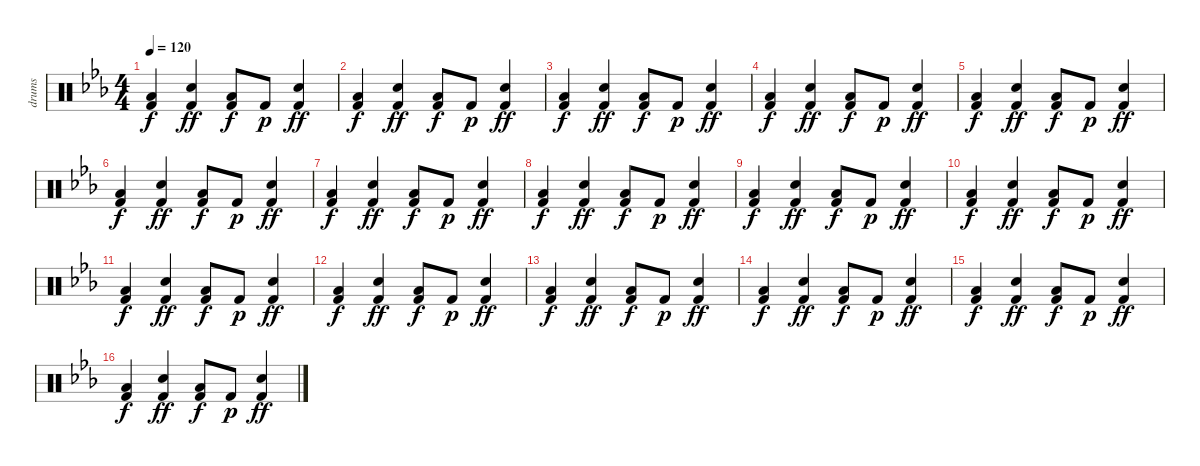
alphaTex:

\track ("drums" "drums") {instrument percussion}
\staff {score}
\articulation defaults
\ts (4 4)
\tempo 120
\clef neutral
\ks cminor
("Kick (hit) 2" "Low Floor Tom (hit)").4{dy f} ("Kick (hit) 2" "Hand Clap (hit)").4{dy ff} ("Kick (hit) 2" "Low Floor Tom (hit)").8{dy f} "Kick (hit) 2".8{dy p} ("Kick (hit) 2" "Hand Clap (hit)").4{dy ff} |
("Kick (hit) 2" "Low Floor Tom (hit)").4{dy f} ("Kick (hit) 2" "Hand Clap (hit)").4{dy ff} ("Kick (hit) 2" "Low Floor Tom (hit)").8{dy f} "Kick (hit) 2".8{dy p} ("Kick (hit) 2" "Hand Clap (hit)").4{dy ff} |
("Kick (hit) 2" "Low Floor Tom (hit)").4{dy f} ("Kick (hit) 2" "Hand Clap (hit)").4{dy ff} ("Kick (hit) 2" "Low Floor Tom (hit)").8{dy f} "Kick (hit) 2".8{dy p} ("Kick (hit) 2" "Hand Clap (hit)").4{dy ff} |
("Kick (hit) 2" "Low Floor Tom (hit)").4{dy f} ("Kick (hit) 2" "Hand Clap (hit)").4{dy ff} ("Kick (hit) 2" "Low Floor Tom (hit)").8{dy f} "Kick (hit) 2".8{dy p} ("Kick (hit) 2" "Hand Clap (hit)").4{dy ff} |
("Kick (hit) 2" "Low Floor Tom (hit)").4{dy f} ("Kick (hit) 2" "Hand Clap (hit)").4{dy ff} ("Kick (hit) 2" "Low Floor Tom (hit)").8{dy f} "Kick (hit) 2".8{dy p} ("Kick (hit) 2" "Hand Clap (hit)").4{dy ff} |
("Kick (hit) 2" "Low Floor Tom (hit)").4{dy f} ("Kick (hit) 2" "Hand Clap (hit)").4{dy ff} ("Kick (hit) 2" "Low Floor Tom (hit)").8{dy f} "Kick (hit) 2".8{dy p} ("Kick (hit) 2" "Hand Clap (hit)").4{dy ff} |
("Kick (hit) 2" "Low Floor Tom (hit)").4{dy f} ("Kick (hit) 2" "Hand Clap (hit)").4{dy ff} ("Kick (hit) 2" "Low Floor Tom (hit)").8{dy f} "Kick (hit) 2".8{dy p} ("Kick (hit) 2" "Hand Clap (hit)").4{dy ff} |
("Kick (hit) 2" "Low Floor Tom (hit)").4{dy f} ("Kick (hit) 2" "Hand Clap (hit)").4{dy ff} ("Kick (hit) 2" "Low Floor Tom (hit)").8{dy f} "Kick (hit) 2".8{dy p} ("Kick (hit) 2" "Hand Clap (hit)").4{dy ff} |
("Kick (hit) 2" "Low Floor Tom (hit)").4{dy f} ("Kick (hit) 2" "Hand Clap (hit)").4{dy ff} ("Kick (hit) 2" "Low Floor Tom (hit)").8{dy f} "Kick (hit) 2".8{dy p} ("Kick (hit) 2" "Hand Clap (hit)").4{dy ff} |
("Kick (hit) 2" "Low Floor Tom (hit)").4{dy f} ("Kick (hit) 2" "Hand Clap (hit)").4{dy ff} ("Kick (hit) 2" "Low Floor Tom (hit)").8{dy f} "Kick (hit) 2".8{dy p} ("Kick (hit) 2" "Hand Clap (hit)").4{dy ff} |
("Kick (hit) 2" "Low Floor Tom (hit)").4{dy f} ("Kick (hit) 2" "Hand Clap (hit)").4{dy ff} ("Kick (hit) 2" "Low Floor Tom (hit)").8{dy f} "Kick (hit) 2".8{dy p} ("Kick (hit) 2" "Hand Clap (hit)").4{dy ff} |
("Kick (hit) 2" "Low Floor Tom (hit)").4{dy f} ("Kick (hit) 2" "Hand Clap (hit)").4{dy ff} ("Kick (hit) 2" "Low Floor Tom (hit)").8{dy f} "Kick (hit) 2".8{dy p} ("Kick (hit) 2" "Hand Clap (hit)").4{dy ff} |
("Kick (hit) 2" "Low Floor Tom (hit)").4{dy f} ("Kick (hit) 2" "Hand Clap (hit)").4{dy ff} ("Kick (hit) 2" "Low Floor Tom (hit)").8{dy f} "Kick (hit) 2".8{dy p} ("Kick (hit) 2" "Hand Clap (hit)").4{dy ff} |
("Kick (hit) 2" "Low Floor Tom (hit)").4{dy f} ("Kick (hit) 2" "Hand Clap (hit)").4{dy ff} ("Kick (hit) 2" "Low Floor Tom (hit)").8{dy f} "Kick (hit) 2".8{dy p} ("Kick (hit) 2" "Hand Clap (hit)").4{dy ff} |
("Kick (hit) 2" "Low Floor Tom (hit)").4{dy f} ("Kick (hit) 2" "Hand Clap (hit)").4{dy ff} ("Kick (hit) 2" "Low Floor Tom (hit)").8{dy f} "Kick (hit) 2".8{dy p} ("Kick (hit) 2" "Hand Clap (hit)").4{dy ff} |
("Kick (hit) 2" "Low Floor Tom (hit)").4{dy f} ("Kick (hit) 2" "Hand Clap (hit)").4{dy ff} ("Kick (hit) 2" "Low Floor Tom (hit)").8{dy f} "Kick (hit) 2".8{dy p} ("Kick (hit) 2" "Hand Clap (hit)").4{dy ff}
